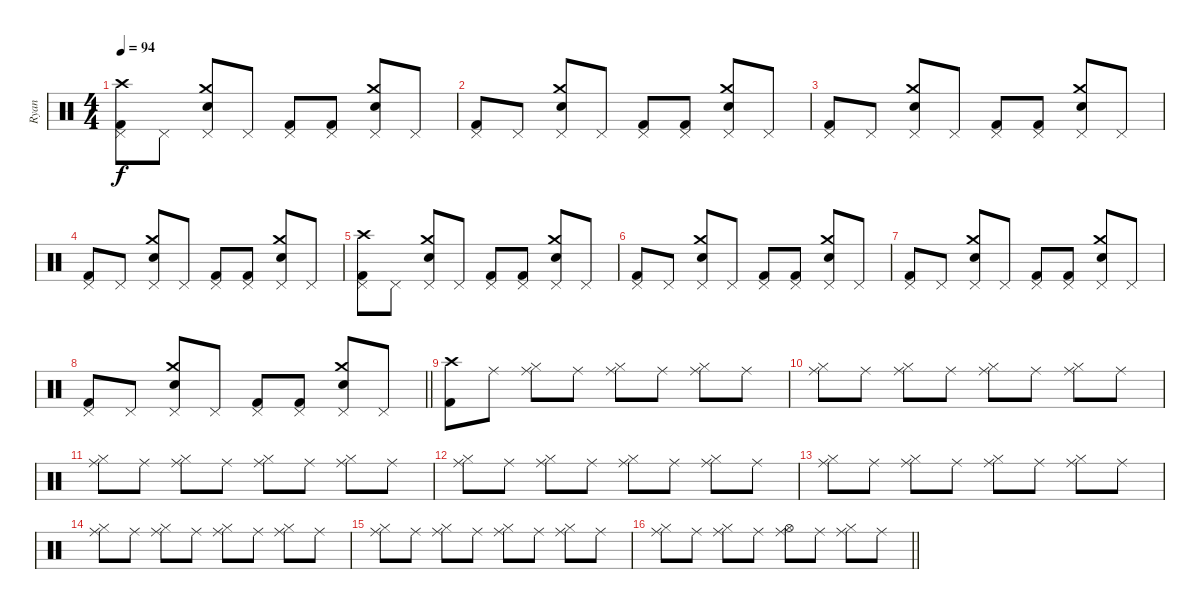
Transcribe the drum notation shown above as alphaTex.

\track ("Ryan" "Ryan") {instrument percussion}
\staff {score}
\articulation defaults
\ts (4 4)
\tempo 94
\clef neutral
\ks c
("Crash high (hit)" "Pedal Hi-Hat (hit)" "Kick (hit) 2").8{dy f} "Pedal Hi-Hat (hit)".8 ("Crash medium (hit)" "Pedal Hi-Hat (hit)" "Electric Snare (hit)").8 "Pedal Hi-Hat (hit)".8 ("Pedal Hi-Hat (hit)" "Kick (hit) 2").8 ("Pedal Hi-Hat (hit)" "Kick (hit) 2").8 ("Crash medium (hit)" "Pedal Hi-Hat (hit)" "Electric Snare (hit)").8 "Pedal Hi-Hat (hit)".8 |
("Pedal Hi-Hat (hit)" "Kick (hit) 2").8 "Pedal Hi-Hat (hit)".8 ("Crash medium (hit)" "Pedal Hi-Hat (hit)" "Electric Snare (hit)").8 "Pedal Hi-Hat (hit)".8 ("Pedal Hi-Hat (hit)" "Kick (hit) 2").8 ("Pedal Hi-Hat (hit)" "Kick (hit) 2").8 ("Crash medium (hit)" "Pedal Hi-Hat (hit)" "Electric Snare (hit)").8 "Pedal Hi-Hat (hit)".8 |
("Pedal Hi-Hat (hit)" "Kick (hit) 2").8 "Pedal Hi-Hat (hit)".8 ("Crash medium (hit)" "Pedal Hi-Hat (hit)" "Electric Snare (hit)").8 "Pedal Hi-Hat (hit)".8 ("Pedal Hi-Hat (hit)" "Kick (hit) 2").8 ("Pedal Hi-Hat (hit)" "Kick (hit) 2").8 ("Crash medium (hit)" "Pedal Hi-Hat (hit)" "Electric Snare (hit)").8 "Pedal Hi-Hat (hit)".8 |
("Pedal Hi-Hat (hit)" "Kick (hit) 2").8 "Pedal Hi-Hat (hit)".8 ("Crash medium (hit)" "Pedal Hi-Hat (hit)" "Electric Snare (hit)").8 "Pedal Hi-Hat (hit)".8 ("Pedal Hi-Hat (hit)" "Kick (hit) 2").8 ("Pedal Hi-Hat (hit)" "Kick (hit) 2").8 ("Crash medium (hit)" "Pedal Hi-Hat (hit)" "Electric Snare (hit)").8 "Pedal Hi-Hat (hit)".8 |
("Crash high (hit)" "Pedal Hi-Hat (hit)" "Kick (hit) 2").8 "Pedal Hi-Hat (hit)".8 ("Crash medium (hit)" "Pedal Hi-Hat (hit)" "Electric Snare (hit)").8 "Pedal Hi-Hat (hit)".8 ("Pedal Hi-Hat (hit)" "Kick (hit) 2").8 ("Pedal Hi-Hat (hit)" "Kick (hit) 2").8 ("Crash medium (hit)" "Pedal Hi-Hat (hit)" "Electric Snare (hit)").8 "Pedal Hi-Hat (hit)".8 |
("Pedal Hi-Hat (hit)" "Kick (hit) 2").8 "Pedal Hi-Hat (hit)".8 ("Crash medium (hit)" "Pedal Hi-Hat (hit)" "Electric Snare (hit)").8 "Pedal Hi-Hat (hit)".8 ("Pedal Hi-Hat (hit)" "Kick (hit) 2").8 ("Pedal Hi-Hat (hit)" "Kick (hit) 2").8 ("Crash medium (hit)" "Pedal Hi-Hat (hit)" "Electric Snare (hit)").8 "Pedal Hi-Hat (hit)".8 |
("Pedal Hi-Hat (hit)" "Kick (hit) 2").8 "Pedal Hi-Hat (hit)".8 ("Crash medium (hit)" "Pedal Hi-Hat (hit)" "Electric Snare (hit)").8 "Pedal Hi-Hat (hit)".8 ("Pedal Hi-Hat (hit)" "Kick (hit) 2").8 ("Pedal Hi-Hat (hit)" "Kick (hit) 2").8 ("Crash medium (hit)" "Pedal Hi-Hat (hit)" "Electric Snare (hit)").8 "Pedal Hi-Hat (hit)".8 |
\barLineRight lightlight
("Pedal Hi-Hat (hit)" "Kick (hit) 2").8 "Pedal Hi-Hat (hit)".8 ("Crash medium (hit)" "Pedal Hi-Hat (hit)" "Electric Snare (hit)").8 "Pedal Hi-Hat (hit)".8 ("Pedal Hi-Hat (hit)" "Kick (hit) 2").8 ("Pedal Hi-Hat (hit)" "Kick (hit) 2").8 ("Crash medium (hit)" "Pedal Hi-Hat (hit)" "Electric Snare (hit)").8 "Pedal Hi-Hat (hit)".8 |
("Crash high (hit)" "Kick (hit) 2").8 "Ride (middle)".8 ("Hi-Hat (closed)" "Ride (middle)").8 "Ride (middle)".8 ("Hi-Hat (closed)" "Ride (middle)").8 "Ride (middle)".8 ("Hi-Hat (closed)" "Ride (middle)").8 "Ride (middle)".8 |
("Hi-Hat (closed)" "Ride (middle)").8 "Ride (middle)".8 ("Hi-Hat (closed)" "Ride (middle)").8 "Ride (middle)".8 ("Hi-Hat (closed)" "Ride (middle)").8 "Ride (middle)".8 ("Hi-Hat (closed)" "Ride (middle)").8 "Ride (middle)".8 |
("Hi-Hat (closed)" "Ride (middle)").8 "Ride (middle)".8 ("Hi-Hat (closed)" "Ride (middle)").8 "Ride (middle)".8 ("Hi-Hat (closed)" "Ride (middle)").8 "Ride (middle)".8 ("Hi-Hat (closed)" "Ride (middle)").8 "Ride (middle)".8 |
("Hi-Hat (closed)" "Ride (middle)").8 "Ride (middle)".8 ("Hi-Hat (closed)" "Ride (middle)").8 "Ride (middle)".8 ("Hi-Hat (closed)" "Ride (middle)").8 "Ride (middle)".8 ("Hi-Hat (closed)" "Ride (middle)").8 "Ride (middle)".8 |
("Hi-Hat (closed)" "Ride (middle)").8 "Ride (middle)".8 ("Hi-Hat (closed)" "Ride (middle)").8 "Ride (middle)".8 ("Hi-Hat (closed)" "Ride (middle)").8 "Ride (middle)".8 ("Hi-Hat (closed)" "Ride (middle)").8 "Ride (middle)".8 |
("Hi-Hat (closed)" "Ride (middle)").8 "Ride (middle)".8 ("Hi-Hat (closed)" "Ride (middle)").8 "Ride (middle)".8 ("Hi-Hat (closed)" "Ride (middle)").8 "Ride (middle)".8 ("Hi-Hat (closed)" "Ride (middle)").8 "Ride (middle)".8 |
("Hi-Hat (closed)" "Ride (middle)").8 "Ride (middle)".8 ("Hi-Hat (closed)" "Ride (middle)").8 "Ride (middle)".8 ("Hi-Hat (closed)" "Ride (middle)").8 "Ride (middle)".8 ("Hi-Hat (closed)" "Ride (middle)").8 "Ride (middle)".8 |
\barLineRight lightlight
("Hi-Hat (closed)" "Ride (middle)").8 "Ride (middle)".8 ("Hi-Hat (closed)" "Ride (middle)").8 "Ride (middle)".8 ("Hi-Hat (open)" "Ride (middle)").8 "Ride (middle)".8 ("Hi-Hat (closed)" "Ride (middle)").8 "Ride (middle)".8
